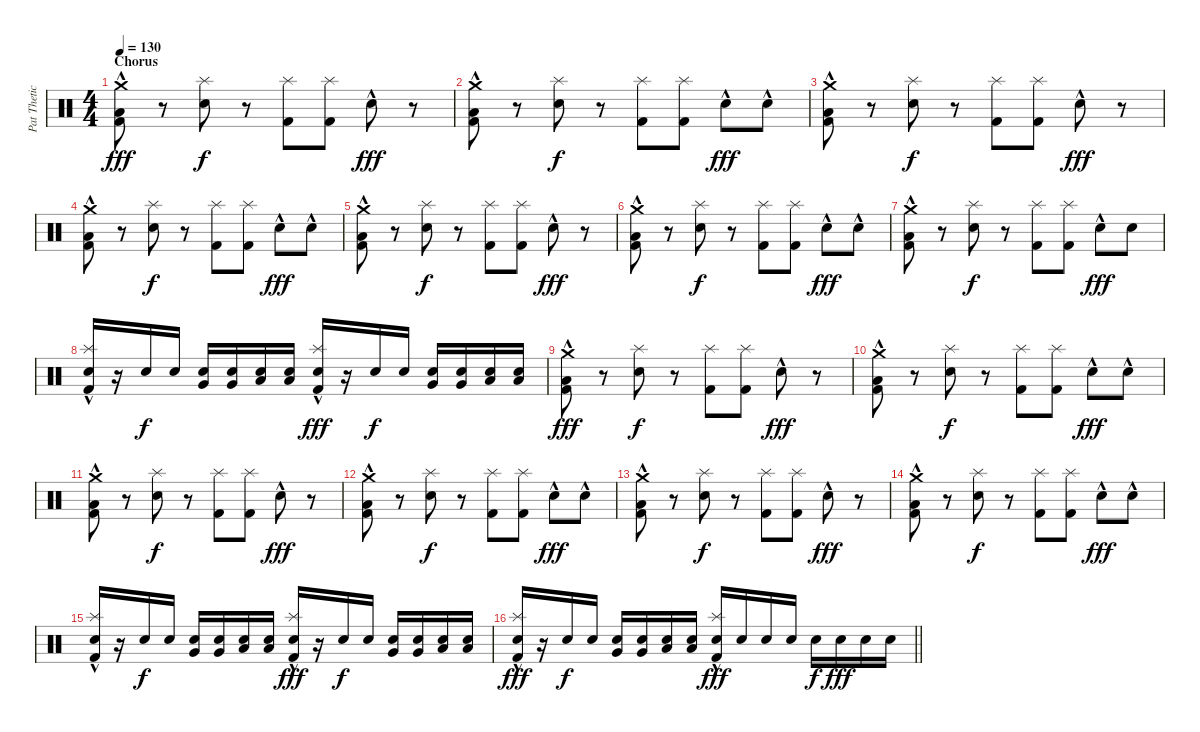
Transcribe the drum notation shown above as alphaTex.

\track ("Pat Thetic Drums" "Pat Thetic") {instrument percussion}
\staff {score}
\articulation defaults
\ts (4 4)
\section ("" "Chorus")
\tempo 130
\clef neutral
\ks c
("Kick (hit) 2"{hac} "Low Floor Tom (hit)" "Crash medium (hit)").8{dy fff} r.8 ("Splash (hit)" "Snare (hit) 2").8{dy f} r.8 ("Splash (hit)" "Kick (hit) 2").8 ("Splash (hit)" "Kick (hit) 2").8 "Snare (hit) 2"{hac}.8{dy fff} r.8 |
("Kick (hit) 2"{hac} "Low Floor Tom (hit)" "Crash medium (hit)").8 r.8 ("Splash (hit)" "Snare (hit) 2").8{dy f} r.8 ("Splash (hit)" "Kick (hit) 2").8 ("Splash (hit)" "Kick (hit) 2").8 "Snare (hit) 2"{hac}.8{dy fff} "Snare (hit) 2"{hac}.8 |
("Kick (hit) 2"{hac} "Low Floor Tom (hit)" "Crash medium (hit)").8 r.8 ("Splash (hit)" "Snare (hit) 2").8{dy f} r.8 ("Splash (hit)" "Kick (hit) 2").8 ("Splash (hit)" "Kick (hit) 2").8 "Snare (hit) 2"{hac}.8{dy fff} r.8 |
("Kick (hit) 2"{hac} "Low Floor Tom (hit)" "Crash medium (hit)").8 r.8 ("Splash (hit)" "Snare (hit) 2").8{dy f} r.8 ("Splash (hit)" "Kick (hit) 2").8 ("Splash (hit)" "Kick (hit) 2").8 "Snare (hit) 2"{hac}.8{dy fff} "Snare (hit) 2"{hac}.8 |
("Kick (hit) 2"{hac} "Low Floor Tom (hit)" "Crash medium (hit)").8 r.8 ("Splash (hit)" "Snare (hit) 2").8{dy f} r.8 ("Splash (hit)" "Kick (hit) 2").8 ("Splash (hit)" "Kick (hit) 2").8 "Snare (hit) 2"{hac}.8{dy fff} r.8 |
("Kick (hit) 2"{hac} "Low Floor Tom (hit)" "Crash medium (hit)").8 r.8 ("Splash (hit)" "Snare (hit) 2").8{dy f} r.8 ("Splash (hit)" "Kick (hit) 2").8 ("Splash (hit)" "Kick (hit) 2").8 "Snare (hit) 2"{hac}.8{dy fff} "Snare (hit) 2"{hac}.8 |
("Kick (hit) 2"{hac} "Low Floor Tom (hit)" "Crash medium (hit)").8 r.8 ("Splash (hit)" "Snare (hit) 2").8{dy f} r.8 ("Splash (hit)" "Kick (hit) 2").8 ("Splash (hit)" "Kick (hit) 2").8 "Snare (hit) 2"{hac}.8{dy fff} "Snare (hit) 2".8 |
("Splash (hit)" "Kick (hit) 2"{hac} "Snare (hit) 2").16 r.16 "Snare (hit) 2".16{dy f} "Snare (hit) 2".16 ("Very Low Tom (hit)" "Snare (hit) 2").16 ("Very Low Tom (hit)" "Snare (hit) 2").16 ("Low Tom (hit)" "Snare (hit) 2").16 ("Low Tom (hit)" "Snare (hit) 2").16 ("Splash (hit)" "Kick (hit) 2" "Snare (hit) 2"{hac}).16{dy fff} r.16 "Snare (hit) 2".16{dy f} "Snare (hit) 2".16 ("Very Low Tom (hit)" "Snare (hit) 2").16 ("Very Low Tom (hit)" "Snare (hit) 2").16 ("Low Tom (hit)" "Snare (hit) 2").16 ("Low Tom (hit)" "Snare (hit) 2").16 |
("Kick (hit) 2"{hac} "Low Floor Tom (hit)" "Crash medium (hit)").8{dy fff} r.8 ("Splash (hit)" "Snare (hit) 2").8{dy f} r.8 ("Splash (hit)" "Kick (hit) 2").8 ("Splash (hit)" "Kick (hit) 2").8 "Snare (hit) 2"{hac}.8{dy fff} r.8 |
("Kick (hit) 2"{hac} "Low Floor Tom (hit)" "Crash medium (hit)").8 r.8 ("Splash (hit)" "Snare (hit) 2").8{dy f} r.8 ("Splash (hit)" "Kick (hit) 2").8 ("Splash (hit)" "Kick (hit) 2").8 "Snare (hit) 2"{hac}.8{dy fff} "Snare (hit) 2"{hac}.8 |
("Kick (hit) 2"{hac} "Low Floor Tom (hit)" "Crash medium (hit)").8 r.8 ("Splash (hit)" "Snare (hit) 2").8{dy f} r.8 ("Splash (hit)" "Kick (hit) 2").8 ("Splash (hit)" "Kick (hit) 2").8 "Snare (hit) 2"{hac}.8{dy fff} r.8 |
("Kick (hit) 2"{hac} "Low Floor Tom (hit)" "Crash medium (hit)").8 r.8 ("Splash (hit)" "Snare (hit) 2").8{dy f} r.8 ("Splash (hit)" "Kick (hit) 2").8 ("Splash (hit)" "Kick (hit) 2").8 "Snare (hit) 2"{hac}.8{dy fff} "Snare (hit) 2"{hac}.8 |
("Kick (hit) 2"{hac} "Low Floor Tom (hit)" "Crash medium (hit)").8 r.8 ("Splash (hit)" "Snare (hit) 2").8{dy f} r.8 ("Splash (hit)" "Kick (hit) 2").8 ("Splash (hit)" "Kick (hit) 2").8 "Snare (hit) 2"{hac}.8{dy fff} r.8 |
("Kick (hit) 2"{hac} "Low Floor Tom (hit)" "Crash medium (hit)").8 r.8 ("Splash (hit)" "Snare (hit) 2").8{dy f} r.8 ("Splash (hit)" "Kick (hit) 2").8 ("Splash (hit)" "Kick (hit) 2").8 "Snare (hit) 2"{hac}.8{dy fff} "Snare (hit) 2"{hac}.8 |
("Splash (hit)" "Kick (hit) 2"{hac} "Snare (hit) 2").16 r.16 "Snare (hit) 2".16{dy f} "Snare (hit) 2".16 ("Very Low Tom (hit)" "Snare (hit) 2").16 ("Very Low Tom (hit)" "Snare (hit) 2").16 ("Low Tom (hit)" "Snare (hit) 2").16 ("Low Tom (hit)" "Snare (hit) 2").16 ("Splash (hit)" "Kick (hit) 2" "Snare (hit) 2"{hac}).16{dy fff} r.16 "Snare (hit) 2".16{dy f} "Snare (hit) 2".16 ("Very Low Tom (hit)" "Snare (hit) 2").16 ("Very Low Tom (hit)" "Snare (hit) 2").16 ("Low Tom (hit)" "Snare (hit) 2").16 ("Low Tom (hit)" "Snare (hit) 2").16 |
\barLineRight lightlight
("Splash (hit)" "Kick (hit) 2"{hac} "Snare (hit) 2").16{dy fff} r.16 "Snare (hit) 2".16{dy f} "Snare (hit) 2".16 ("Very Low Tom (hit)" "Snare (hit) 2").16 ("Very Low Tom (hit)" "Snare (hit) 2").16 ("Low Tom (hit)" "Snare (hit) 2").16 ("Low Tom (hit)" "Snare (hit) 2").16 ("Splash (hit)" "Kick (hit) 2" "Snare (hit) 2"{hac}).16{dy fff} "Snare (hit) 2".16 "Snare (hit) 2".16 "Snare (hit) 2".16 "Snare (hit) 2".16{dy f} "Snare (hit) 2".16{dy fff} "Snare (hit) 2".16 "Snare (hit) 2".16
